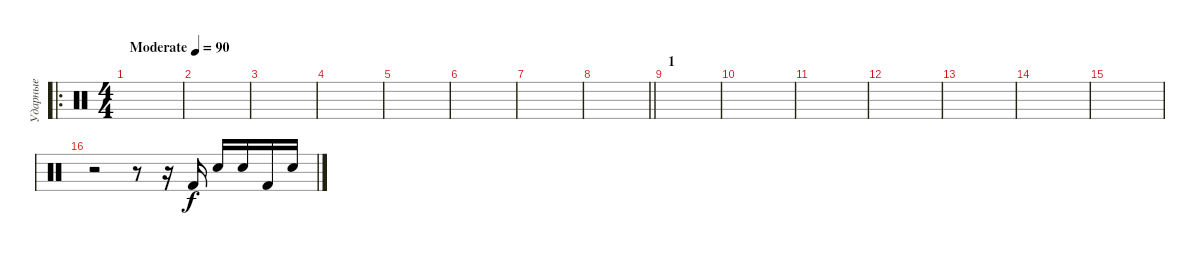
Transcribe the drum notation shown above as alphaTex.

\track ("Ударные" "Ударные") {instrument percussion}
\staff {score}
\articulation defaults
\ro
\ts (4 4)
\tempo (90 "Moderate")
\clef neutral
\ks c
|
|
|
|
|
|
|
\barLineRight lightlight
|
\section ("" "1")
|
|
|
|
|
|
|
r.2 r.8 r.16 "Kick (hit) 2".16 "Snare (hit) 2".16 "Snare (hit) 2".16 "Kick (hit) 2".16 "Snare (hit) 2".16
